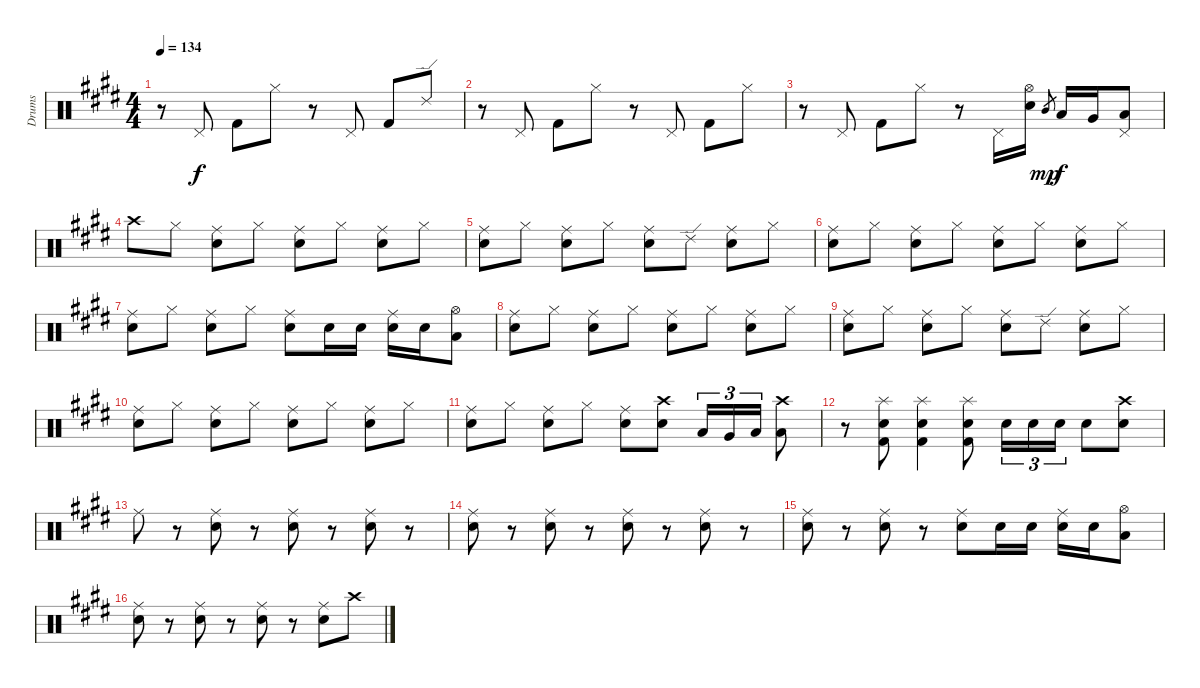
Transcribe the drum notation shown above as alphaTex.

\track ("Drums" "Drums") {instrument percussion}
\staff {score}
\articulation defaults
\ts (4 4)
\tempo 134
\clef neutral
\ks e
r.8{dy f} "Pedal Hi-Hat (hit)".8 "Kick (hit) 2".8 "Hi-Hat (closed)".8 r.8 "Pedal Hi-Hat (hit)".8 "Kick (hit) 2".8 "Ride (edge) 2".8 |
r.8 "Pedal Hi-Hat (hit)".8 "Kick (hit) 2".8 "Hi-Hat (closed)".8 r.8 "Pedal Hi-Hat (hit)".8 "Kick (hit) 2".8 "Hi-Hat (closed)".8 |
r.8 "Pedal Hi-Hat (hit)".8 "Kick (hit) 2".8 "Hi-Hat (closed)".8 r.8 "Pedal Hi-Hat (hit)".16 ("Electric Snare (hit)" "Hi-Hat (open)").16 "Mid Tom (hit)".8{gr dy mp} "Low Tom (hit)".16{dy f} "Very Low Tom (hit)".16 ("Low Floor Tom (hit)" "Pedal Hi-Hat (hit)").8 |
"Crash high (hit)".8 "Hi-Hat (closed)".8 ("Ride (middle)" "Electric Snare (hit)").8 "Hi-Hat (closed)".8 ("Ride (middle)" "Electric Snare (hit)").8 "Hi-Hat (closed)".8 ("Ride (middle)" "Electric Snare (hit)").8 "Hi-Hat (closed)".8 |
("Ride (middle)" "Electric Snare (hit)").8 "Hi-Hat (closed)".8 ("Ride (middle)" "Electric Snare (hit)").8 "Hi-Hat (closed)".8 ("Ride (middle)" "Electric Snare (hit)").8 "Ride (edge) 2".8 ("Ride (middle)" "Electric Snare (hit)").8 "Hi-Hat (closed)".8 |
("Ride (middle)" "Electric Snare (hit)").8 "Hi-Hat (closed)".8 ("Ride (middle)" "Electric Snare (hit)").8 "Hi-Hat (closed)".8 ("Ride (middle)" "Electric Snare (hit)").8 "Hi-Hat (closed)".8 ("Ride (middle)" "Electric Snare (hit)").8 "Hi-Hat (closed)".8 |
("Ride (middle)" "Electric Snare (hit)").8 "Hi-Hat (closed)".8 ("Ride (middle)" "Electric Snare (hit)").8 "Hi-Hat (closed)".8 ("Ride (middle)" "Electric Snare (hit)").8 "Electric Snare (hit)".16{volume 8} "Electric Snare (hit)".16 ("Ride (middle)" "Electric Snare (hit)").16 "Electric Snare (hit)".16 ("Hi-Hat (open)" "Low Tom (hit)").8{volume 11} |
("Ride (middle)" "Electric Snare (hit)").8 "Hi-Hat (closed)".8 ("Ride (middle)" "Electric Snare (hit)").8 "Hi-Hat (closed)".8 ("Ride (middle)" "Electric Snare (hit)").8 "Hi-Hat (closed)".8 ("Ride (middle)" "Electric Snare (hit)").8 "Hi-Hat (closed)".8 |
("Ride (middle)" "Electric Snare (hit)").8 "Hi-Hat (closed)".8 ("Ride (middle)" "Electric Snare (hit)").8 "Hi-Hat (closed)".8 ("Ride (middle)" "Electric Snare (hit)").8 "Ride (edge) 2".8 ("Ride (middle)" "Electric Snare (hit)").8 "Hi-Hat (closed)".8 |
("Ride (middle)" "Electric Snare (hit)").8 "Hi-Hat (closed)".8 ("Ride (middle)" "Electric Snare (hit)").8 "Hi-Hat (closed)".8 ("Ride (middle)" "Electric Snare (hit)").8 "Hi-Hat (closed)".8 ("Ride (middle)" "Electric Snare (hit)").8 "Hi-Hat (closed)".8 |
("Ride (middle)" "Electric Snare (hit)").8 "Hi-Hat (closed)".8 ("Ride (middle)" "Electric Snare (hit)").8 "Hi-Hat (closed)".8 ("Ride (middle)" "Electric Snare (hit)").8 ("Crash high (hit)" "Electric Snare (hit)").8 "Low Tom (hit)".16{tu (3 2)} "Very Low Tom (hit)".16{tu (3 2)} "Low Floor Tom (hit)".16{tu (3 2)} ("Low Tom (hit)" "Crash high (hit)").8 |
r.8 ("Electric Snare (hit)" "Splash (hit)" "Kick (hit) 2").8 ("Electric Snare (hit)" "Splash (hit)" "Kick (hit) 2").4 ("Electric Snare (hit)" "Splash (hit)" "Kick (hit) 2").8 "Electric Snare (hit)".16{tu (3 2)} "Electric Snare (hit)".16{tu (3 2)} "Electric Snare (hit)".16{tu (3 2)} "Electric Snare (hit)".8 ("Crash high (hit)" "Electric Snare (hit)").8 |
"Ride (middle)".8 r.8 ("Ride (middle)" "Electric Snare (hit)").8 r.8 ("Ride (middle)" "Electric Snare (hit)").8 r.8 ("Ride (middle)" "Electric Snare (hit)").8 r.8 |
("Ride (middle)" "Electric Snare (hit)").8 r.8 ("Ride (middle)" "Electric Snare (hit)").8 r.8 ("Ride (middle)" "Electric Snare (hit)").8 r.8 ("Ride (middle)" "Electric Snare (hit)").8 r.8 |
("Ride (middle)" "Electric Snare (hit)").8 r.8 ("Ride (middle)" "Electric Snare (hit)").8 r.8 ("Ride (middle)" "Electric Snare (hit)").8 "Electric Snare (hit)".16{volume 8} "Electric Snare (hit)".16 ("Ride (middle)" "Electric Snare (hit)").16 "Electric Snare (hit)".16 ("Hi-Hat (open)" "Low Tom (hit)").8{volume 10} |
("Ride (middle)" "Electric Snare (hit)").8 r.8 ("Ride (middle)" "Electric Snare (hit)").8 r.8 ("Ride (middle)" "Electric Snare (hit)").8 r.8 ("Ride (middle)" "Electric Snare (hit)").8 "Crash high (hit)".8
